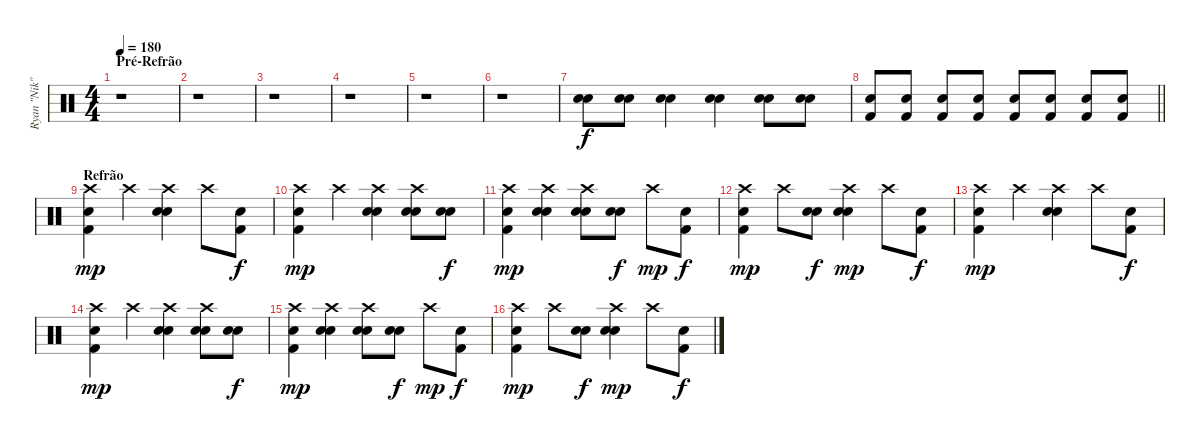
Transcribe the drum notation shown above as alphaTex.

\track ("Ryan \"Nik\"" "Ryan \"Nik\"") {instrument percussion}
\staff {score}
\articulation defaults
\ts (4 4)
\section ("" "Pré-Refrão")
\tempo 180
\clef neutral
\ks c
r.1{dy f} |
r.1 |
r.1 |
r.1 |
r.1 |
r.1 |
("Snare (hit) 2" "Electric Snare (hit)").8 ("Snare (hit) 2" "Electric Snare (hit)").8 ("Electric Snare (hit)" "Electric Snare (hit)").4 ("Electric Snare (hit)" "Snare (hit) 2").4 ("Electric Snare (hit)" "Electric Snare (hit)").8 ("Electric Snare (hit)" "Electric Snare (hit)").8 |
\barLineRight lightlight
("Kick (hit) 2" "Electric Snare (hit)").8 ("Kick (hit) 2" "Electric Snare (hit)").8 ("Kick (hit) 2" "Electric Snare (hit)").8 ("Kick (hit) 2" "Electric Snare (hit)").8 ("Kick (hit) 2" "Electric Snare (hit)").8 ("Kick (hit) 2" "Electric Snare (hit)").8 ("Kick (hit) 2" "Electric Snare (hit)").8 ("Kick (hit) 2" "Electric Snare (hit)").8 |
\section ("" "Refrão")
("Crash high (hit)" "Electric Snare (hit)" "Kick (hit) 2").4{dy mp} "Crash high (hit)".4 ("Crash high (hit)" "Electric Snare (hit)" "Electric Snare (hit)").4 "Crash high (hit)".8 ("Kick (hit) 2" "Electric Snare (hit)").8{dy f} |
("Crash high (hit)" "Electric Snare (hit)" "Kick (hit) 2").4{dy mp} "Crash high (hit)".4 ("Crash high (hit)" "Electric Snare (hit)" "Electric Snare (hit)").4 ("Crash high (hit)" "Electric Snare (hit)" "Electric Snare (hit)").8 ("Electric Snare (hit)" "Electric Snare (hit)").8{dy f} |
("Crash high (hit)" "Electric Snare (hit)" "Kick (hit) 2").4{dy mp} ("Crash high (hit)" "Electric Snare (hit)" "Electric Snare (hit)").4 ("Crash high (hit)" "Electric Snare (hit)" "Electric Snare (hit)").8 ("Electric Snare (hit)" "Electric Snare (hit)").8{dy f} "Crash high (hit)".8{dy mp} ("Kick (hit) 2" "Electric Snare (hit)").8{dy f} |
("Crash high (hit)" "Electric Snare (hit)" "Kick (hit) 2").4{dy mp} "Crash high (hit)".8 ("Electric Snare (hit)" "Electric Snare (hit)").8{dy f} ("Crash high (hit)" "Electric Snare (hit)" "Electric Snare (hit)").4{dy mp} "Crash high (hit)".8 ("Kick (hit) 2" "Electric Snare (hit)").8{dy f} |
("Crash high (hit)" "Electric Snare (hit)" "Kick (hit) 2").4{dy mp} "Crash high (hit)".4 ("Crash high (hit)" "Electric Snare (hit)" "Electric Snare (hit)").4 "Crash high (hit)".8 ("Kick (hit) 2" "Electric Snare (hit)").8{dy f} |
("Crash high (hit)" "Electric Snare (hit)" "Kick (hit) 2").4{dy mp} "Crash high (hit)".4 ("Crash high (hit)" "Electric Snare (hit)" "Electric Snare (hit)").4 ("Crash high (hit)" "Electric Snare (hit)" "Electric Snare (hit)").8 ("Electric Snare (hit)" "Electric Snare (hit)").8{dy f} |
("Crash high (hit)" "Electric Snare (hit)" "Kick (hit) 2").4{dy mp} ("Crash high (hit)" "Electric Snare (hit)" "Electric Snare (hit)").4 ("Crash high (hit)" "Electric Snare (hit)" "Electric Snare (hit)").8 ("Electric Snare (hit)" "Electric Snare (hit)").8{dy f} "Crash high (hit)".8{dy mp} ("Kick (hit) 2" "Electric Snare (hit)").8{dy f} |
("Crash high (hit)" "Electric Snare (hit)" "Kick (hit) 2").4{dy mp} "Crash high (hit)".8 ("Electric Snare (hit)" "Electric Snare (hit)").8{dy f} ("Crash high (hit)" "Electric Snare (hit)" "Electric Snare (hit)").4{dy mp} "Crash high (hit)".8 ("Kick (hit) 2" "Electric Snare (hit)").8{dy f}
